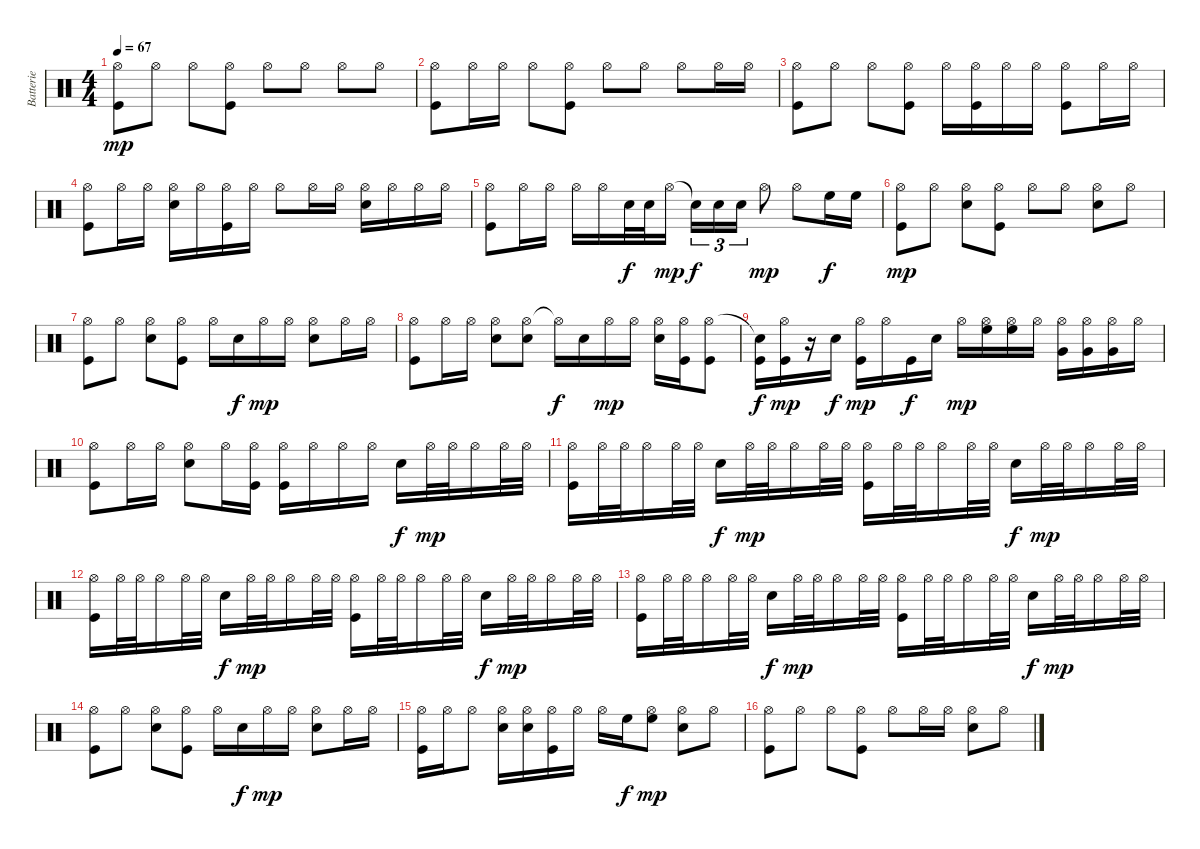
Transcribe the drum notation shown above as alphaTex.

\track ("Batterie" "Batterie") {instrument percussion}
\staff {score}
\articulation defaults
\ts (4 4)
\tempo 67
\clef neutral
\ks c
("Hi-Hat (open)" "Kick (hit)").8{dy mp} "Hi-Hat (open)".8 "Hi-Hat (open)".8 ("Hi-Hat (open)" "Kick (hit)").8 "Hi-Hat (open)".8 "Hi-Hat (open)".8 "Hi-Hat (open)".8 "Hi-Hat (open)".8 |
("Hi-Hat (open)" "Kick (hit)").8 "Hi-Hat (open)".16 "Hi-Hat (open)".16 "Hi-Hat (open)".8 ("Hi-Hat (open)" "Kick (hit)").8 "Hi-Hat (open)".8 "Hi-Hat (open)".8 "Hi-Hat (open)".8 "Hi-Hat (open)".16 "Hi-Hat (open)".16 |
("Hi-Hat (open)" "Kick (hit)").8 "Hi-Hat (open)".8 "Hi-Hat (open)".8 ("Hi-Hat (open)" "Kick (hit)").8 "Hi-Hat (open)".16 ("Hi-Hat (open)" "Kick (hit)").16 "Hi-Hat (open)".16 "Hi-Hat (open)".16 ("Hi-Hat (open)" "Kick (hit)").8 "Hi-Hat (open)".16 "Hi-Hat (open)".16 |
("Hi-Hat (open)" "Kick (hit)").8 "Hi-Hat (open)".16 "Hi-Hat (open)".16 ("Hi-Hat (open)" "Snare (hit) 2").16 "Hi-Hat (open)".16 ("Hi-Hat (open)" "Kick (hit)").16 "Hi-Hat (open)".16 "Hi-Hat (open)".8 "Hi-Hat (open)".16 "Hi-Hat (open)".16 ("Hi-Hat (open)" "Snare (hit) 2").16 "Hi-Hat (open)".16 "Hi-Hat (open)".16 "Hi-Hat (open)".16 |
("Hi-Hat (open)" "Kick (hit)").8 "Hi-Hat (open)".16 "Hi-Hat (open)".16 "Hi-Hat (open)".16 "Hi-Hat (open)".16 "Snare (hit) 2".32{dy f} "Snare (hit) 2".32 "Hi-Hat (open)".16{dy mp} "Snare (hit)"{t}.16{tu (3 2) dy f} "Snare (hit) 2".16{tu (3 2)} "Snare (hit) 2".16{tu (3 2)} "Hi-Hat (open)".8{dy mp} "Hi-Hat (open)".8 "High Floor Tom (hit)".16{dy f} "High Floor Tom (hit)".16 |
("Hi-Hat (open)" "Kick (hit)").8{dy mp} "Hi-Hat (open)".8 ("Hi-Hat (open)" "Snare (hit) 2").8 ("Hi-Hat (open)" "Kick (hit)").8 "Hi-Hat (open)".8 "Hi-Hat (open)".8 ("Hi-Hat (open)" "Snare (hit) 2").8 "Hi-Hat (open)".8 |
("Hi-Hat (open)" "Kick (hit)").8 "Hi-Hat (open)".8 ("Hi-Hat (open)" "Snare (hit) 2").8 ("Hi-Hat (open)" "Kick (hit)").8 "Hi-Hat (open)".16 "Snare (hit) 2".16{dy f} "Hi-Hat (open)".16{dy mp} "Hi-Hat (open)".16 ("Hi-Hat (open)" "Snare (hit) 2").8 "Hi-Hat (open)".16 "Hi-Hat (open)".16 |
("Hi-Hat (open)" "Kick (hit)").8 "Hi-Hat (open)".16 "Hi-Hat (open)".16 ("Hi-Hat (open)" "Snare (hit) 2").8 ("Hi-Hat (open)" "Snare (hit) 2").8 "Hi-Hat (open)"{t}.16{dy f} "Snare (hit) 2".16 "Hi-Hat (open)".16{dy mp} "Hi-Hat (open)".16 ("Hi-Hat (open)" "Snare (hit) 2").16 ("Hi-Hat (open)" "Kick (hit)").16 ("Hi-Hat (open)" "Kick (hit)").8 |
("Snare (hit)"{t} "Kick (hit)").16{dy f} ("Hi-Hat (open)" "Kick (hit)").16{dy mp} r.16 "Snare (hit) 2".16{dy f} ("Hi-Hat (open)" "Kick (hit)").16{dy mp} "Hi-Hat (open)".16 "Kick (hit)".16{dy f} "Snare (hit) 2".16 "Hi-Hat (open)".16{dy mp} ("Hi-Hat (open)" "High Floor Tom (hit)").16 ("Hi-Hat (open)" "High Floor Tom (hit)").16 "Hi-Hat (open)".16 ("Hi-Hat (open)" "Very Low Tom (hit)").16 ("Hi-Hat (open)" "Very Low Tom (hit)").16 ("Hi-Hat (open)" "Very Low Tom (hit)").16 "Hi-Hat (open)".16 |
("Hi-Hat (open)" "Kick (hit)").8 "Hi-Hat (open)".16 "Hi-Hat (open)".16 ("Hi-Hat (open)" "Snare (hit) 2").8 "Hi-Hat (open)".16 ("Hi-Hat (open)" "Kick (hit)").16 ("Hi-Hat (open)" "Kick (hit)").16 "Hi-Hat (open)".16 "Hi-Hat (open)".16 "Hi-Hat (open)".16 "Snare (hit) 2".16{dy f} "Hi-Hat (open)".32{dy mp} "Hi-Hat (open)".32 "Hi-Hat (open)".16 "Hi-Hat (open)".32 "Hi-Hat (open)".32 |
("Hi-Hat (open)" "Kick (hit)").16 "Hi-Hat (open)".32 "Hi-Hat (open)".32 "Hi-Hat (open)".16 "Hi-Hat (open)".32 "Hi-Hat (open)".32 "Snare (hit) 2".16{dy f} "Hi-Hat (open)".32{dy mp} "Hi-Hat (open)".32 "Hi-Hat (open)".16 "Hi-Hat (open)".32 "Hi-Hat (open)".32 ("Hi-Hat (open)" "Kick (hit)").16 "Hi-Hat (open)".32 "Hi-Hat (open)".32 "Hi-Hat (open)".16 "Hi-Hat (open)".32 "Hi-Hat (open)".32 "Snare (hit) 2".16{dy f} "Hi-Hat (open)".32{dy mp} "Hi-Hat (open)".32 "Hi-Hat (open)".16 "Hi-Hat (open)".32 "Hi-Hat (open)".32 |
("Hi-Hat (open)" "Kick (hit)").16 "Hi-Hat (open)".32 "Hi-Hat (open)".32 "Hi-Hat (open)".16 "Hi-Hat (open)".32 "Hi-Hat (open)".32 "Snare (hit) 2".16{dy f} "Hi-Hat (open)".32{dy mp} "Hi-Hat (open)".32 "Hi-Hat (open)".16 "Hi-Hat (open)".32 "Hi-Hat (open)".32 ("Hi-Hat (open)" "Kick (hit)").16 "Hi-Hat (open)".32 "Hi-Hat (open)".32 "Hi-Hat (open)".16 "Hi-Hat (open)".32 "Hi-Hat (open)".32 "Snare (hit) 2".16{dy f} "Hi-Hat (open)".32{dy mp} "Hi-Hat (open)".32 "Hi-Hat (open)".16 "Hi-Hat (open)".32 "Hi-Hat (open)".32 |
("Hi-Hat (open)" "Kick (hit)").16 "Hi-Hat (open)".32 "Hi-Hat (open)".32 "Hi-Hat (open)".16 "Hi-Hat (open)".32 "Hi-Hat (open)".32 "Snare (hit) 2".16{dy f} "Hi-Hat (open)".32{dy mp} "Hi-Hat (open)".32 "Hi-Hat (open)".16 "Hi-Hat (open)".32 "Hi-Hat (open)".32 ("Hi-Hat (open)" "Kick (hit)").16 "Hi-Hat (open)".32 "Hi-Hat (open)".32 "Hi-Hat (open)".16 "Hi-Hat (open)".32 "Hi-Hat (open)".32 "Snare (hit) 2".16{dy f} "Hi-Hat (open)".32{dy mp} "Hi-Hat (open)".32 "Hi-Hat (open)".16 "Hi-Hat (open)".32 "Hi-Hat (open)".32 |
("Hi-Hat (open)" "Kick (hit)").8 "Hi-Hat (open)".8 ("Hi-Hat (open)" "Snare (hit) 2").8 ("Hi-Hat (open)" "Kick (hit)").8 "Hi-Hat (open)".16 "Snare (hit) 2".16{dy f} "Hi-Hat (open)".16{dy mp} "Hi-Hat (open)".16 ("Hi-Hat (open)" "Snare (hit) 2").8 "Hi-Hat (open)".16 "Hi-Hat (open)".16 |
("Hi-Hat (open)" "Kick (hit)").16 "Hi-Hat (open)".16 "Hi-Hat (open)".8 ("Hi-Hat (open)" "Snare (hit) 2").16 ("Hi-Hat (open)" "Snare (hit) 2").16 ("Hi-Hat (open)" "Kick (hit)").16 "Hi-Hat (open)".16 "Hi-Hat (open)".16 "High Floor Tom (hit)".16{dy f} ("Hi-Hat (open)" "High Floor Tom (hit)").8{dy mp} ("Hi-Hat (open)" "Snare (hit) 2").8 "Hi-Hat (open)".8 |
("Hi-Hat (open)" "Kick (hit)").8 "Hi-Hat (open)".8 "Hi-Hat (open)".8 ("Hi-Hat (open)" "Kick (hit)").8 "Hi-Hat (open)".8 "Hi-Hat (open)".16 "Hi-Hat (open)".16 ("Hi-Hat (open)" "Snare (hit) 2").8 "Hi-Hat (open)".8
